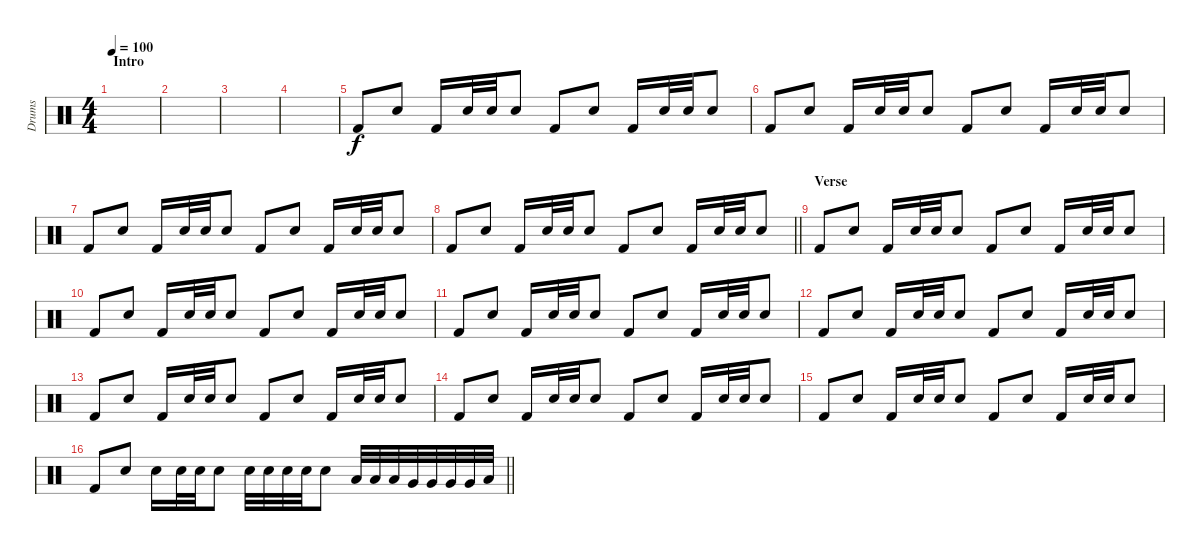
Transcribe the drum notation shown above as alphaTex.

\track ("Drums" "Drums") {instrument percussion}
\staff {score}
\articulation defaults
\ts (4 4)
\section ("" "Intro")
\tempo 100
\clef neutral
\ks c
|
|
|
|
"Kick (hit) 2".8 "Electric Snare (hit)".8 "Kick (hit) 2".16 "Electric Snare (hit)".32 "Electric Snare (hit)".32 "Electric Snare (hit)".8 "Kick (hit) 2".8 "Electric Snare (hit)".8 "Kick (hit) 2".16 "Electric Snare (hit)".32 "Electric Snare (hit)".32 "Electric Snare (hit)".8 |
"Kick (hit) 2".8 "Electric Snare (hit)".8 "Kick (hit) 2".16 "Electric Snare (hit)".32 "Electric Snare (hit)".32 "Electric Snare (hit)".8 "Kick (hit) 2".8 "Electric Snare (hit)".8 "Kick (hit) 2".16 "Electric Snare (hit)".32 "Electric Snare (hit)".32 "Electric Snare (hit)".8 |
"Kick (hit) 2".8 "Electric Snare (hit)".8 "Kick (hit) 2".16 "Electric Snare (hit)".32 "Electric Snare (hit)".32 "Electric Snare (hit)".8 "Kick (hit) 2".8 "Electric Snare (hit)".8 "Kick (hit) 2".16 "Electric Snare (hit)".32 "Electric Snare (hit)".32 "Electric Snare (hit)".8 |
\barLineRight lightlight "Kick (hit) 2".8 "Electric Snare (hit)".8 "Kick (hit) 2".16 "Electric Snare (hit)".32 "Electric Snare (hit)".32 "Electric Snare (hit)".8 "Kick (hit) 2".8 "Electric Snare (hit)".8 "Kick (hit) 2".16 "Electric Snare (hit)".32 "Electric Snare (hit)".32 "Electric Snare (hit)".8
|
\section ("" "Verse")
"Kick (hit) 2".8 "Electric Snare (hit)".8 "Kick (hit) 2".16 "Electric Snare (hit)".32 "Electric Snare (hit)".32 "Electric Snare (hit)".8 "Kick (hit) 2".8 "Electric Snare (hit)".8 "Kick (hit) 2".16 "Electric Snare (hit)".32 "Electric Snare (hit)".32 "Electric Snare (hit)".8 |
"Kick (hit) 2".8 "Electric Snare (hit)".8 "Kick (hit) 2".16 "Electric Snare (hit)".32 "Electric Snare (hit)".32 "Electric Snare (hit)".8 "Kick (hit) 2".8 "Electric Snare (hit)".8 "Kick (hit) 2".16 "Electric Snare (hit)".32 "Electric Snare (hit)".32 "Electric Snare (hit)".8 |
"Kick (hit) 2".8 "Electric Snare (hit)".8 "Kick (hit) 2".16 "Electric Snare (hit)".32 "Electric Snare (hit)".32 "Electric Snare (hit)".8 "Kick (hit) 2".8 "Electric Snare (hit)".8 "Kick (hit) 2".16 "Electric Snare (hit)".32 "Electric Snare (hit)".32 "Electric Snare (hit)".8 |
"Kick (hit) 2".8 "Electric Snare (hit)".8 "Kick (hit) 2".16 "Electric Snare (hit)".32 "Electric Snare (hit)".32 "Electric Snare (hit)".8 "Kick (hit) 2".8 "Electric Snare (hit)".8 "Kick (hit) 2".16 "Electric Snare (hit)".32 "Electric Snare (hit)".32 "Electric Snare (hit)".8 |
"Kick (hit) 2".8 "Electric Snare (hit)".8 "Kick (hit) 2".16 "Electric Snare (hit)".32 "Electric Snare (hit)".32 "Electric Snare (hit)".8 "Kick (hit) 2".8 "Electric Snare (hit)".8 "Kick (hit) 2".16 "Electric Snare (hit)".32 "Electric Snare (hit)".32 "Electric Snare (hit)".8 |
"Kick (hit) 2".8 "Electric Snare (hit)".8 "Kick (hit) 2".16 "Electric Snare (hit)".32 "Electric Snare (hit)".32 "Electric Snare (hit)".8 "Kick (hit) 2".8 "Electric Snare (hit)".8 "Kick (hit) 2".16 "Electric Snare (hit)".32 "Electric Snare (hit)".32 "Electric Snare (hit)".8 |
"Kick (hit) 2".8 "Electric Snare (hit)".8 "Kick (hit) 2".16 "Electric Snare (hit)".32 "Electric Snare (hit)".32 "Electric Snare (hit)".8 "Kick (hit) 2".8 "Electric Snare (hit)".8 "Kick (hit) 2".16 "Electric Snare (hit)".32 "Electric Snare (hit)".32 "Electric Snare (hit)".8 |
\barLineRight lightlight "Kick (hit) 2".8 "Electric Snare (hit)".8 "Electric Snare (hit)".16 "Electric Snare (hit)".32 "Electric Snare (hit)".32 "Electric Snare (hit)".8 "Electric Snare (hit)".32 "Electric Snare (hit)".32 "Electric Snare (hit)".32 "Electric Snare (hit)".32 "Electric Snare (hit)".8 "Low Tom (hit)".32 "Low Tom (hit)".32 "Low Tom (hit)".32 "Very Low Tom (hit)".32 "Very Low Tom (hit)".32 "Very Low Tom (hit)".32 "Very Low Tom (hit)".32 "Low Floor Tom (hit)".32
